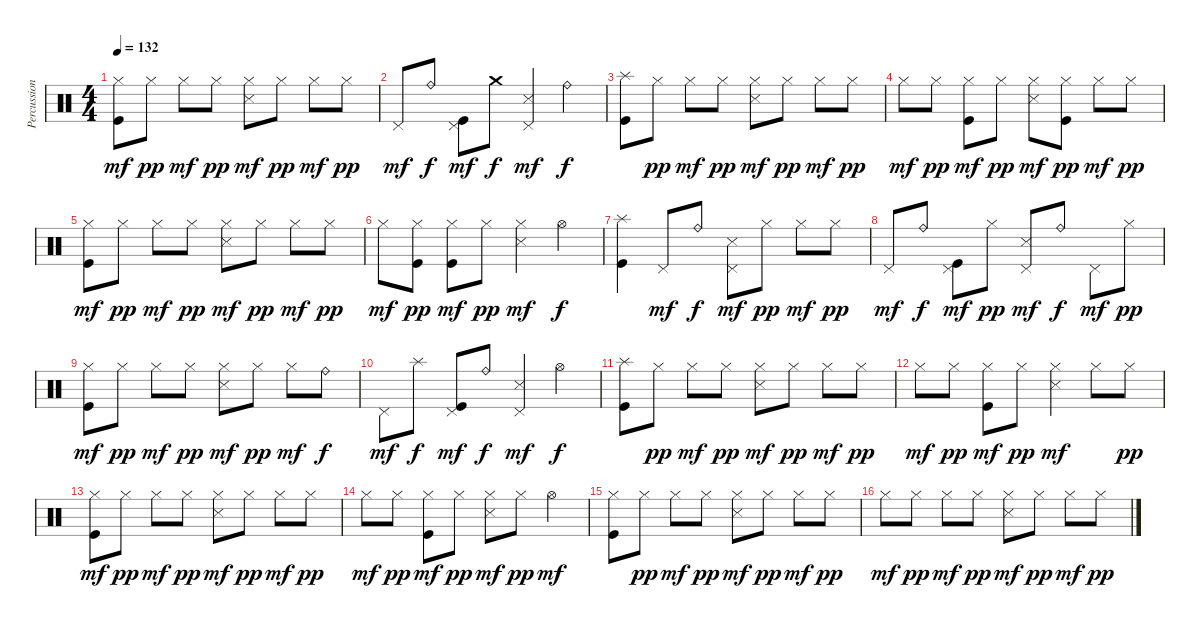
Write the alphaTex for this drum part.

\track ("Percussion" "Percussion") {instrument percussion}
\staff {score}
\articulation defaults
\ts (4 4)
\tempo 132
\clef neutral
\ks c
("Hi-Hat (closed)" "Kick (hit)").8{dy mf} "Hi-Hat (closed)".8{dy pp} "Hi-Hat (closed)".8{dy mf} "Hi-Hat (closed)".8{dy pp} ("Hi-Hat (closed)" "Snare (side stick) 3").8{dy mf} "Hi-Hat (closed)".8{dy pp} "Hi-Hat (closed)".8{dy mf} "Hi-Hat (closed)".8{dy pp} |
"Pedal Hi-Hat (hit)".8{dy mf} "Ride (bell)".8{dy f} ("Pedal Hi-Hat (hit)" "Kick (hit)").8{dy mf} "Crash medium (hit)".8{dy f} ("Pedal Hi-Hat (hit)" "Snare (side stick) 3").4{dy mf} "Ride (bell)".4{dy f} |
("Splash (hit)" "Kick (hit)").8 "Hi-Hat (closed)".8{dy pp} "Hi-Hat (closed)".8{dy mf} "Hi-Hat (closed)".8{dy pp} ("Hi-Hat (closed)" "Snare (side stick) 3").8{dy mf} "Hi-Hat (closed)".8{dy pp} "Hi-Hat (closed)".8{dy mf} "Hi-Hat (closed)".8{dy pp} |
"Hi-Hat (closed)".8{dy mf} "Hi-Hat (closed)".8{dy pp} ("Hi-Hat (closed)" "Kick (hit)").8{dy mf} "Hi-Hat (closed)".8{dy pp} ("Hi-Hat (closed)" "Snare (side stick) 3").8{dy mf} ("Hi-Hat (closed)" "Kick (hit)").8{dy pp} "Hi-Hat (closed)".8{dy mf} "Hi-Hat (closed)".8{dy pp} |
("Hi-Hat (closed)" "Kick (hit)").8{dy mf} "Hi-Hat (closed)".8{dy pp} "Hi-Hat (closed)".8{dy mf} "Hi-Hat (closed)".8{dy pp} ("Hi-Hat (closed)" "Snare (side stick) 3").8{dy mf} "Hi-Hat (closed)".8{dy pp} "Hi-Hat (closed)".8{dy mf} "Hi-Hat (closed)".8{dy pp} |
"Hi-Hat (closed)".8{dy mf} ("Hi-Hat (closed)" "Kick (hit)").8{dy pp} ("Hi-Hat (closed)" "Kick (hit)").8{dy mf} "Hi-Hat (closed)".8{dy pp} ("Hi-Hat (closed)" "Snare (side stick) 3").4{dy mf} "Hi-Hat (open)".4{dy f} |
("Splash (hit)" "Kick (hit)").4 "Pedal Hi-Hat (hit)".8{dy mf} "Ride (bell)".8{dy f} ("Pedal Hi-Hat (hit)" "Snare (side stick) 3").8{dy mf} "Hi-Hat (closed)".8{dy pp} "Hi-Hat (closed)".8{dy mf} "Hi-Hat (closed)".8{dy pp} |
"Pedal Hi-Hat (hit)".8{dy mf} "Ride (bell)".8{dy f} ("Pedal Hi-Hat (hit)" "Kick (hit)").8{dy mf} "Hi-Hat (closed)".8{dy pp} ("Pedal Hi-Hat (hit)" "Snare (side stick) 3").8{dy mf} "Ride (bell)".8{dy f} "Pedal Hi-Hat (hit)".8{dy mf} "Hi-Hat (closed)".8{dy pp} |
("Hi-Hat (closed)" "Kick (hit)").8{dy mf} "Hi-Hat (closed)".8{dy pp} "Hi-Hat (closed)".8{dy mf} "Hi-Hat (closed)".8{dy pp} ("Hi-Hat (closed)" "Snare (side stick) 3").8{dy mf} "Hi-Hat (closed)".8{dy pp} "Hi-Hat (closed)".8{dy mf} "Ride (bell)".8{dy f} |
"Pedal Hi-Hat (hit)".8{dy mf} "Splash (hit)".8{dy f} ("Pedal Hi-Hat (hit)" "Kick (hit)").8{dy mf} "Ride (bell)".8{dy f} ("Pedal Hi-Hat (hit)" "Snare (side stick) 3").4{dy mf} "Hi-Hat (open)".4{dy f} |
("Splash (hit)" "Kick (hit)").8 "Hi-Hat (closed)".8{dy pp} "Hi-Hat (closed)".8{dy mf} "Hi-Hat (closed)".8{dy pp} ("Hi-Hat (closed)" "Snare (side stick) 3").8{dy mf} "Hi-Hat (closed)".8{dy pp} "Hi-Hat (closed)".8{dy mf} "Hi-Hat (closed)".8{dy pp} |
"Hi-Hat (closed)".8{dy mf} "Hi-Hat (closed)".8{dy pp} ("Hi-Hat (closed)" "Kick (hit)").8{dy mf} "Hi-Hat (closed)".8{dy pp} ("Hi-Hat (closed)" "Snare (side stick) 3").4{dy mf} "Hi-Hat (closed)".8 "Hi-Hat (closed)".8{dy pp} |
("Hi-Hat (closed)" "Kick (hit)").8{dy mf} "Hi-Hat (closed)".8{dy pp} "Hi-Hat (closed)".8{dy mf} "Hi-Hat (closed)".8{dy pp} ("Hi-Hat (closed)" "Snare (side stick) 3").8{dy mf} "Hi-Hat (closed)".8{dy pp} "Hi-Hat (closed)".8{dy mf} "Hi-Hat (closed)".8{dy pp} |
"Hi-Hat (closed)".8{dy mf} "Hi-Hat (closed)".8{dy pp} ("Hi-Hat (closed)" "Kick (hit)").8{dy mf} "Hi-Hat (closed)".8{dy pp} ("Hi-Hat (closed)" "Snare (side stick) 3").8{dy mf} "Hi-Hat (closed)".8{dy pp} "Hi-Hat (open)".4{dy mf} |
("Hi-Hat (closed)" "Kick (hit)").8 "Hi-Hat (closed)".8{dy pp} "Hi-Hat (closed)".8{dy mf} "Hi-Hat (closed)".8{dy pp} ("Hi-Hat (closed)" "Snare (side stick) 3").8{dy mf} "Hi-Hat (closed)".8{dy pp} "Hi-Hat (closed)".8{dy mf} "Hi-Hat (closed)".8{dy pp} |
"Hi-Hat (closed)".8{dy mf} "Hi-Hat (closed)".8{dy pp} "Hi-Hat (closed)".8{dy mf} "Hi-Hat (closed)".8{dy pp} ("Hi-Hat (closed)" "Snare (side stick) 3").8{dy mf} "Hi-Hat (closed)".8{dy pp} "Hi-Hat (closed)".8{dy mf} "Hi-Hat (closed)".8{dy pp}
